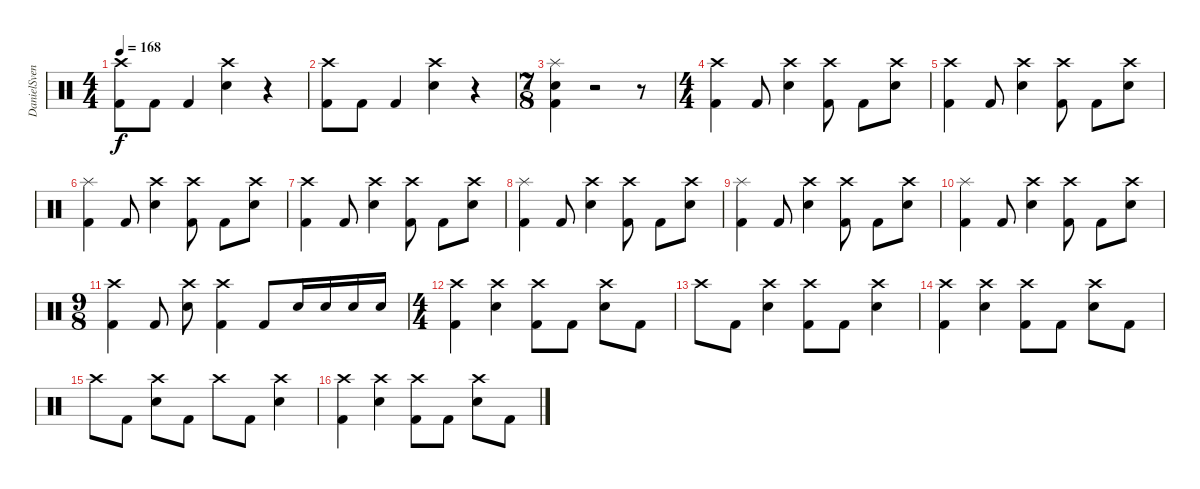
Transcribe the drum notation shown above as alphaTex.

\track ("DanielSvensson" "DanielSven") {instrument percussion}
\staff {score}
\articulation defaults
\ts (4 4)
\tempo 168
\clef neutral
\ks c
("Crash high (hit)" "Kick (hit) 2").8{dy f} "Kick (hit) 2".8 "Kick (hit) 2".4 ("Crash high (hit)" "Electric Snare (hit)").4 r.4 |
("Crash high (hit)" "Kick (hit) 2").8 "Kick (hit) 2".8 "Kick (hit) 2".4 ("Crash high (hit)" "Electric Snare (hit)").4 r.4 |
\ts (7 8)
("Splash (hit)" "Electric Snare (hit)" "Kick (hit) 2").4 r.2 r.8 |
\ts (4 4)
("Crash high (hit)" "Kick (hit) 2").4 "Kick (hit) 2".8 ("Crash high (hit)" "Electric Snare (hit)").4 ("Crash high (hit)" "Kick (hit) 2").8 "Kick (hit) 2".8 ("Crash high (hit)" "Electric Snare (hit)").8 |
("Crash high (hit)" "Kick (hit) 2").4 "Kick (hit) 2".8 ("Crash high (hit)" "Electric Snare (hit)").4 ("Crash high (hit)" "Kick (hit) 2").8 "Kick (hit) 2".8 ("Crash high (hit)" "Electric Snare (hit)").8 |
("Splash (hit)" "Kick (hit) 2").4 "Kick (hit) 2".8 ("Crash high (hit)" "Electric Snare (hit)").4 ("Crash high (hit)" "Kick (hit) 2").8 "Kick (hit) 2".8 ("Crash high (hit)" "Electric Snare (hit)").8 |
("Crash high (hit)" "Kick (hit) 2").4 "Kick (hit) 2".8 ("Crash high (hit)" "Electric Snare (hit)").4 ("Crash high (hit)" "Kick (hit) 2").8 "Kick (hit) 2".8 ("Crash high (hit)" "Electric Snare (hit)").8 |
("Splash (hit)" "Kick (hit) 2").4 "Kick (hit) 2".8 ("Crash high (hit)" "Electric Snare (hit)").4 ("Crash high (hit)" "Kick (hit) 2").8 "Kick (hit) 2".8 ("Crash high (hit)" "Electric Snare (hit)").8 |
("Splash (hit)" "Kick (hit) 2").4 "Kick (hit) 2".8 ("Crash high (hit)" "Electric Snare (hit)").4 ("Crash high (hit)" "Kick (hit) 2").8 "Kick (hit) 2".8 ("Crash high (hit)" "Electric Snare (hit)").8 |
("Splash (hit)" "Kick (hit) 2").4 "Kick (hit) 2".8 ("Crash high (hit)" "Electric Snare (hit)").4 ("Crash high (hit)" "Kick (hit) 2").8 "Kick (hit) 2".8 ("Crash high (hit)" "Electric Snare (hit)").8 |
\ts (9 8)
("Crash high (hit)" "Kick (hit) 2").4 "Kick (hit) 2".8 ("Crash high (hit)" "Electric Snare (hit)").8 ("Crash high (hit)" "Kick (hit) 2").4 "Kick (hit) 2".8 "Electric Snare (hit)".16 "Electric Snare (hit)".16 "Electric Snare (hit)".16 "Electric Snare (hit)".16 |
\ts (4 4)
("Crash high (hit)" "Kick (hit) 2").4 ("Crash high (hit)" "Electric Snare (hit)").4 ("Crash high (hit)" "Kick (hit) 2").8 "Kick (hit) 2".8 ("Crash high (hit)" "Electric Snare (hit)").8 "Kick (hit) 2".8 |
"Crash high (hit)".8 "Kick (hit) 2".8 ("Crash high (hit)" "Electric Snare (hit)").4 ("Crash high (hit)" "Kick (hit) 2").8 "Kick (hit) 2".8 ("Crash high (hit)" "Electric Snare (hit)").4 |
("Crash high (hit)" "Kick (hit) 2").4 ("Crash high (hit)" "Electric Snare (hit)").4 ("Crash high (hit)" "Kick (hit) 2").8 "Kick (hit) 2".8 ("Crash high (hit)" "Electric Snare (hit)").8 "Kick (hit) 2".8 |
"Crash high (hit)".8 "Kick (hit) 2".8 ("Crash high (hit)" "Electric Snare (hit)").8 "Kick (hit) 2".8 "Crash high (hit)".8 "Kick (hit) 2".8 ("Crash high (hit)" "Electric Snare (hit)").4 |
("Crash high (hit)" "Kick (hit) 2").4 ("Crash high (hit)" "Electric Snare (hit)").4 ("Crash high (hit)" "Kick (hit) 2").8 "Kick (hit) 2".8 ("Crash high (hit)" "Electric Snare (hit)").8 "Kick (hit) 2".8
